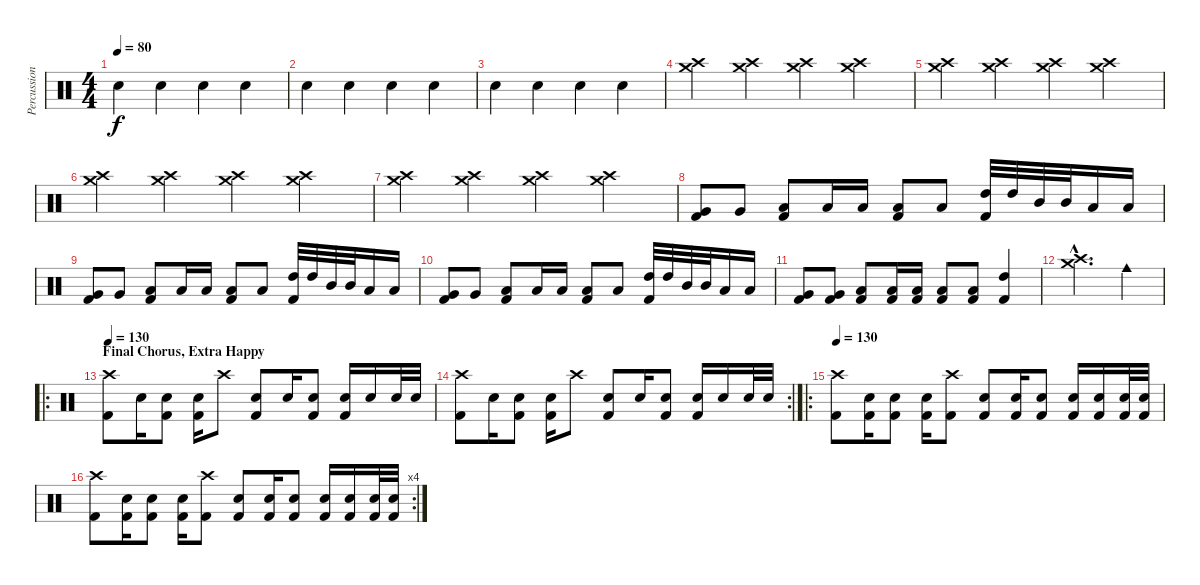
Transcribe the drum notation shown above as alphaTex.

\track ("Percussion" "Percussion") {instrument percussion}
\staff {score}
\articulation defaults
\ts (4 4)
\tempo 80
\clef neutral
\ks c "Hand Clap (hit)".4{dy f} "Hand Clap (hit)".4 "Hand Clap (hit)".4 "Hand Clap (hit)".4
|
"Hand Clap (hit)".4 "Hand Clap (hit)".4 "Hand Clap (hit)".4 "Hand Clap (hit)".4 |
"Hand Clap (hit)".4 "Hand Clap (hit)".4 "Hand Clap (hit)".4 "Hand Clap (hit)".4 |
("Crash high (hit)" "Crash medium (hit)").4 ("Crash high (hit)" "Crash medium (hit)").4 ("Crash high (hit)" "Crash medium (hit)").4 ("Crash high (hit)" "Crash medium (hit)").4 |
("Crash high (hit)" "Crash medium (hit)").4 ("Crash high (hit)" "Crash medium (hit)").4 ("Crash high (hit)" "Crash medium (hit)").4 ("Crash high (hit)" "Crash medium (hit)").4 |
("Crash high (hit)" "Crash medium (hit)").4 ("Crash high (hit)" "Crash medium (hit)").4 ("Crash high (hit)" "Crash medium (hit)").4 ("Crash high (hit)" "Crash medium (hit)").4 |
("Crash high (hit)" "Crash medium (hit)").4 ("Crash high (hit)" "Crash medium (hit)").4 ("Crash high (hit)" "Crash medium (hit)").4 ("Crash high (hit)" "Crash medium (hit)").4 |
("Very Low Tom (hit)" "Kick (hit) 2").8 "Very Low Tom (hit)".8 ("Low Floor Tom (hit)" "Kick (hit) 2").8 "Low Tom (hit)".16 "Low Tom (hit)".16 ("Low Tom (hit)" "Kick (hit) 2").8 "Low Floor Tom (hit)".8 ("High Tom (hit)" "Kick (hit) 2").32 "High Tom (hit)".32 "Mid Tom (hit)".32 "Mid Tom (hit)".32 "Low Tom (hit)".16 "Low Tom (hit)".16 |
("Very Low Tom (hit)" "Kick (hit) 2").8 "Very Low Tom (hit)".8 ("Low Floor Tom (hit)" "Kick (hit) 2").8 "Low Tom (hit)".16 "Low Tom (hit)".16 ("Low Tom (hit)" "Kick (hit) 2").8 "Low Floor Tom (hit)".8 ("High Tom (hit)" "Kick (hit) 2").32 "High Tom (hit)".32 "Mid Tom (hit)".32 "Mid Tom (hit)".32 "Low Tom (hit)".16 "Low Tom (hit)".16 |
("Very Low Tom (hit)" "Kick (hit) 2").8 "Very Low Tom (hit)".8 ("Low Floor Tom (hit)" "Kick (hit) 2").8 "Low Tom (hit)".16 "Low Tom (hit)".16 ("Low Tom (hit)" "Kick (hit) 2").8 "Low Floor Tom (hit)".8 ("High Tom (hit)" "Kick (hit) 2").32 "High Tom (hit)".32 "Mid Tom (hit)".32 "Mid Tom (hit)".32 "Low Tom (hit)".16 "Low Tom (hit)".16 |
("Very Low Tom (hit)" "Kick (hit) 2").8 ("Very Low Tom (hit)" "Kick (hit) 2").8 ("Low Floor Tom (hit)" "Kick (hit) 2").8 ("Low Tom (hit)" "Kick (hit) 2").16 ("Low Tom (hit)" "Kick (hit) 2").16 ("Low Tom (hit)" "Kick (hit) 2").8 ("Low Floor Tom (hit)" "Kick (hit) 2").8 ("High Tom (hit)" "Kick (hit) 2").4 |
("Crash high (hit)"{hac} "Crash medium (hit)"{hac}).2{d} "Cowbell medium (hit)".4 |
\ro
\section ("" "Final Chorus, Extra Happy")
\tempo 130
("Crash high (hit)" "Kick (hit) 2").8 "Electric Snare (hit)".16 ("Electric Snare (hit)" "Kick (hit) 2").8 ("Electric Snare (hit)" "Kick (hit) 2").16 "Crash high (hit)".8 ("Electric Snare (hit)" "Kick (hit) 2").8 "Electric Snare (hit)".16 ("Electric Snare (hit)" "Kick (hit) 2").8 ("Electric Snare (hit)" "Kick (hit) 2").16 "Electric Snare (hit)".16 "Electric Snare (hit)".32 "Electric Snare (hit)".32 |
\rc 2
("Crash high (hit)" "Kick (hit) 2").8 "Electric Snare (hit)".16 ("Electric Snare (hit)" "Kick (hit) 2").8 ("Electric Snare (hit)" "Kick (hit) 2").16 "Crash high (hit)".8 ("Electric Snare (hit)" "Kick (hit) 2").8 "Electric Snare (hit)".16 ("Electric Snare (hit)" "Kick (hit) 2").8 ("Electric Snare (hit)" "Kick (hit) 2").16 "Electric Snare (hit)".16 "Electric Snare (hit)".32 "Electric Snare (hit)".32 |
\ro
\tempo 130
("Crash high (hit)" "Kick (hit) 2").8 ("Electric Snare (hit)" "Kick (hit) 2").16 ("Electric Snare (hit)" "Kick (hit) 2").8 ("Electric Snare (hit)" "Kick (hit) 2").16 ("Crash high (hit)" "Kick (hit) 2").8 ("Electric Snare (hit)" "Kick (hit) 2").8 ("Electric Snare (hit)" "Kick (hit) 2").16 ("Electric Snare (hit)" "Kick (hit) 2").8 ("Electric Snare (hit)" "Kick (hit) 2").16 ("Electric Snare (hit)" "Kick (hit) 2").16 ("Electric Snare (hit)" "Kick (hit) 2").32 ("Electric Snare (hit)" "Kick (hit) 2").32 |
\rc 4
("Crash high (hit)" "Kick (hit) 2").8 ("Electric Snare (hit)" "Kick (hit) 2").16 ("Electric Snare (hit)" "Kick (hit) 2").8 ("Electric Snare (hit)" "Kick (hit) 2").16 ("Crash high (hit)" "Kick (hit) 2").8 ("Electric Snare (hit)" "Kick (hit) 2").8 ("Electric Snare (hit)" "Kick (hit) 2").16 ("Electric Snare (hit)" "Kick (hit) 2").8 ("Electric Snare (hit)" "Kick (hit) 2").16 ("Electric Snare (hit)" "Kick (hit) 2").16 ("Electric Snare (hit)" "Kick (hit) 2").32 ("Electric Snare (hit)" "Kick (hit) 2").32
